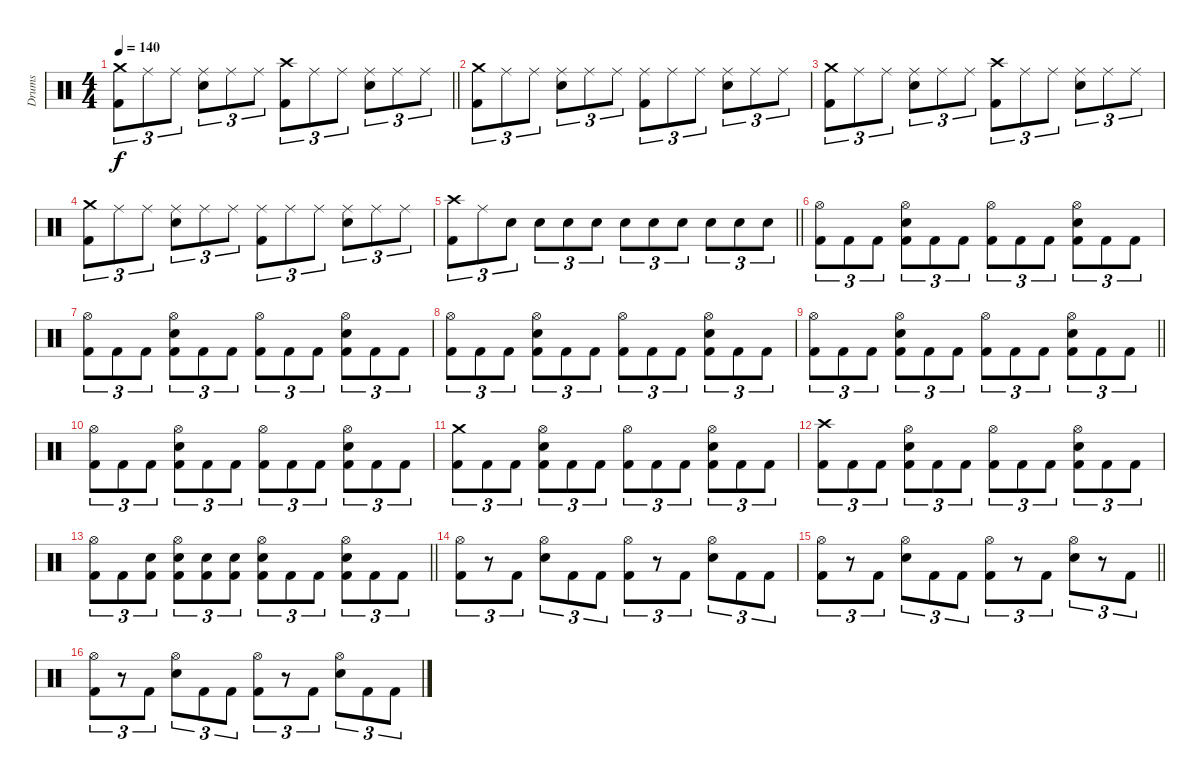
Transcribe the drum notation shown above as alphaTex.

\track ("Drums" "Drums") {instrument percussion}
\staff {score}
\articulation defaults
\ts (4 4)
\tempo 140
\clef neutral
\barLineRight lightlight
\ks c
("Crash medium (hit)" "Kick (hit) 2").8{tu (3 2) dy f} "Ride (middle)".8{tu (3 2)} "Ride (middle)".8{tu (3 2)} ("Ride (middle)" "Snare (hit) 2").8{tu (3 2)} "Ride (middle)".8{tu (3 2)} "Ride (middle)".8{tu (3 2)} ("Crash high (hit)" "Kick (hit) 2").8{tu (3 2)} "Ride (middle)".8{tu (3 2)} "Ride (middle)".8{tu (3 2)} ("Ride (middle)" "Snare (hit) 2").8{tu (3 2)} "Ride (middle)".8{tu (3 2)} "Ride (middle)".8{tu (3 2)} |
("Crash medium (hit)" "Kick (hit) 2").8{tu (3 2)} "Ride (middle)".8{tu (3 2)} "Ride (middle)".8{tu (3 2)} ("Ride (middle)" "Snare (hit) 2").8{tu (3 2)} "Ride (middle)".8{tu (3 2)} "Ride (middle)".8{tu (3 2)} ("Ride (middle)" "Kick (hit) 2").8{tu (3 2)} "Ride (middle)".8{tu (3 2)} "Ride (middle)".8{tu (3 2)} ("Ride (middle)" "Snare (hit) 2").8{tu (3 2)} "Ride (middle)".8{tu (3 2)} "Ride (middle)".8{tu (3 2)} |
("Crash medium (hit)" "Kick (hit) 2").8{tu (3 2)} "Ride (middle)".8{tu (3 2)} "Ride (middle)".8{tu (3 2)} ("Ride (middle)" "Snare (hit) 2").8{tu (3 2)} "Ride (middle)".8{tu (3 2)} "Ride (middle)".8{tu (3 2)} ("Crash high (hit)" "Kick (hit) 2").8{tu (3 2)} "Ride (middle)".8{tu (3 2)} "Ride (middle)".8{tu (3 2)} ("Ride (middle)" "Snare (hit) 2").8{tu (3 2)} "Ride (middle)".8{tu (3 2)} "Ride (middle)".8{tu (3 2)} |
("Crash medium (hit)" "Kick (hit) 2").8{tu (3 2)} "Ride (middle)".8{tu (3 2)} "Ride (middle)".8{tu (3 2)} ("Ride (middle)" "Snare (hit) 2").8{tu (3 2)} "Ride (middle)".8{tu (3 2)} "Ride (middle)".8{tu (3 2)} ("Ride (middle)" "Kick (hit) 2").8{tu (3 2)} "Ride (middle)".8{tu (3 2)} "Ride (middle)".8{tu (3 2)} ("Ride (middle)" "Snare (hit) 2").8{tu (3 2)} "Ride (middle)".8{tu (3 2)} "Ride (middle)".8{tu (3 2)} |
\barLineRight lightlight
("Crash high (hit)" "Kick (hit) 2").8{tu (3 2)} "Ride (middle)".8{tu (3 2)} "Snare (hit) 2".8{tu (3 2)} "Snare (hit) 2".8{tu (3 2)} "Snare (hit) 2".8{tu (3 2)} "Snare (hit) 2".8{tu (3 2)} "Snare (hit) 2".8{tu (3 2)} "Snare (hit) 2".8{tu (3 2)} "Snare (hit) 2".8{tu (3 2)} "Snare (hit) 2".8{tu (3 2)} "Snare (hit) 2".8{tu (3 2)} "Snare (hit) 2".8{tu (3 2)} |
("Hi-Hat (open)" "Kick (hit) 2").8{tu (3 2)} "Kick (hit) 2".8{tu (3 2)} "Kick (hit) 2".8{tu (3 2)} ("Hi-Hat (open)" "Snare (hit) 2" "Kick (hit) 2").8{tu (3 2)} "Kick (hit) 2".8{tu (3 2)} "Kick (hit) 2".8{tu (3 2)} ("Hi-Hat (open)" "Kick (hit) 2").8{tu (3 2)} "Kick (hit) 2".8{tu (3 2)} "Kick (hit) 2".8{tu (3 2)} ("Hi-Hat (open)" "Snare (hit) 2" "Kick (hit) 2").8{tu (3 2)} "Kick (hit) 2".8{tu (3 2)} "Kick (hit) 2".8{tu (3 2)} |
("Hi-Hat (open)" "Kick (hit) 2").8{tu (3 2)} "Kick (hit) 2".8{tu (3 2)} "Kick (hit) 2".8{tu (3 2)} ("Hi-Hat (open)" "Snare (hit) 2" "Kick (hit) 2").8{tu (3 2)} "Kick (hit) 2".8{tu (3 2)} "Kick (hit) 2".8{tu (3 2)} ("Hi-Hat (open)" "Kick (hit) 2").8{tu (3 2)} "Kick (hit) 2".8{tu (3 2)} "Kick (hit) 2".8{tu (3 2)} ("Hi-Hat (open)" "Snare (hit) 2" "Kick (hit) 2").8{tu (3 2)} "Kick (hit) 2".8{tu (3 2)} "Kick (hit) 2".8{tu (3 2)} |
("Hi-Hat (open)" "Kick (hit) 2").8{tu (3 2)} "Kick (hit) 2".8{tu (3 2)} "Kick (hit) 2".8{tu (3 2)} ("Hi-Hat (open)" "Snare (hit) 2" "Kick (hit) 2").8{tu (3 2)} "Kick (hit) 2".8{tu (3 2)} "Kick (hit) 2".8{tu (3 2)} ("Hi-Hat (open)" "Kick (hit) 2").8{tu (3 2)} "Kick (hit) 2".8{tu (3 2)} "Kick (hit) 2".8{tu (3 2)} ("Hi-Hat (open)" "Snare (hit) 2" "Kick (hit) 2").8{tu (3 2)} "Kick (hit) 2".8{tu (3 2)} "Kick (hit) 2".8{tu (3 2)} |
\barLineRight lightlight
("Hi-Hat (open)" "Kick (hit) 2").8{tu (3 2)} "Kick (hit) 2".8{tu (3 2)} "Kick (hit) 2".8{tu (3 2)} ("Hi-Hat (open)" "Snare (hit) 2" "Kick (hit) 2").8{tu (3 2)} "Kick (hit) 2".8{tu (3 2)} "Kick (hit) 2".8{tu (3 2)} ("Hi-Hat (open)" "Kick (hit) 2").8{tu (3 2)} "Kick (hit) 2".8{tu (3 2)} "Kick (hit) 2".8{tu (3 2)} ("Hi-Hat (open)" "Snare (hit) 2" "Kick (hit) 2").8{tu (3 2)} "Kick (hit) 2".8{tu (3 2)} "Kick (hit) 2".8{tu (3 2)} |
("Hi-Hat (open)" "Kick (hit) 2").8{tu (3 2)} "Kick (hit) 2".8{tu (3 2)} "Kick (hit) 2".8{tu (3 2)} ("Hi-Hat (open)" "Snare (hit) 2" "Kick (hit) 2").8{tu (3 2)} "Kick (hit) 2".8{tu (3 2)} "Kick (hit) 2".8{tu (3 2)} ("Hi-Hat (open)" "Kick (hit) 2").8{tu (3 2)} "Kick (hit) 2".8{tu (3 2)} "Kick (hit) 2".8{tu (3 2)} ("Hi-Hat (open)" "Snare (hit) 2" "Kick (hit) 2").8{tu (3 2)} "Kick (hit) 2".8{tu (3 2)} "Kick (hit) 2".8{tu (3 2)} |
("Crash medium (hit)" "Kick (hit) 2").8{tu (3 2)} "Kick (hit) 2".8{tu (3 2)} "Kick (hit) 2".8{tu (3 2)} ("Hi-Hat (open)" "Snare (hit) 2" "Kick (hit) 2").8{tu (3 2)} "Kick (hit) 2".8{tu (3 2)} "Kick (hit) 2".8{tu (3 2)} ("Hi-Hat (open)" "Kick (hit) 2").8{tu (3 2)} "Kick (hit) 2".8{tu (3 2)} "Kick (hit) 2".8{tu (3 2)} ("Hi-Hat (open)" "Snare (hit) 2" "Kick (hit) 2").8{tu (3 2)} "Kick (hit) 2".8{tu (3 2)} "Kick (hit) 2".8{tu (3 2)} |
("Crash high (hit)" "Kick (hit) 2").8{tu (3 2)} "Kick (hit) 2".8{tu (3 2)} "Kick (hit) 2".8{tu (3 2)} ("Hi-Hat (open)" "Snare (hit) 2" "Kick (hit) 2").8{tu (3 2)} "Kick (hit) 2".8{tu (3 2)} "Kick (hit) 2".8{tu (3 2)} ("Hi-Hat (open)" "Kick (hit) 2").8{tu (3 2)} "Kick (hit) 2".8{tu (3 2)} "Kick (hit) 2".8{tu (3 2)} ("Hi-Hat (open)" "Snare (hit) 2" "Kick (hit) 2").8{tu (3 2)} "Kick (hit) 2".8{tu (3 2)} "Kick (hit) 2".8{tu (3 2)} |
\barLineRight lightlight
("Hi-Hat (open)" "Kick (hit) 2").8{tu (3 2)} "Kick (hit) 2".8{tu (3 2)} ("Snare (hit) 2" "Kick (hit) 2").8{tu (3 2)} ("Hi-Hat (open)" "Snare (hit) 2" "Kick (hit) 2").8{tu (3 2)} ("Snare (hit) 2" "Kick (hit) 2").8{tu (3 2)} ("Snare (hit) 2" "Kick (hit) 2").8{tu (3 2)} ("Hi-Hat (open)" "Snare (hit) 2" "Kick (hit) 2").8{tu (3 2)} "Kick (hit) 2".8{tu (3 2)} "Kick (hit) 2".8{tu (3 2)} ("Hi-Hat (open)" "Snare (hit) 2" "Kick (hit) 2").8{tu (3 2)} "Kick (hit) 2".8{tu (3 2)} "Kick (hit) 2".8{tu (3 2)} |
("Hi-Hat (open)" "Kick (hit) 2").8{tu (3 2)} r.8{tu (3 2)} "Kick (hit) 2".8{tu (3 2)} ("Hi-Hat (open)" "Snare (hit) 2").8{tu (3 2)} "Kick (hit) 2".8{tu (3 2)} "Kick (hit) 2".8{tu (3 2)} ("Hi-Hat (open)" "Kick (hit) 2").8{tu (3 2)} r.8{tu (3 2)} "Kick (hit) 2".8{tu (3 2)} ("Hi-Hat (open)" "Snare (hit) 2").8{tu (3 2)} "Kick (hit) 2".8{tu (3 2)} "Kick (hit) 2".8{tu (3 2)} |
\barLineRight lightlight
("Hi-Hat (open)" "Kick (hit) 2").8{tu (3 2)} r.8{tu (3 2)} "Kick (hit) 2".8{tu (3 2)} ("Hi-Hat (open)" "Snare (hit) 2").8{tu (3 2)} "Kick (hit) 2".8{tu (3 2)} "Kick (hit) 2".8{tu (3 2)} ("Hi-Hat (open)" "Kick (hit) 2").8{tu (3 2)} r.8{tu (3 2)} "Kick (hit) 2".8{tu (3 2)} ("Hi-Hat (open)" "Snare (hit) 2").8{tu (3 2)} r.8{tu (3 2)} "Kick (hit) 2".8{tu (3 2)} |
("Hi-Hat (open)" "Kick (hit) 2").8{tu (3 2)} r.8{tu (3 2)} "Kick (hit) 2".8{tu (3 2)} ("Hi-Hat (open)" "Snare (hit) 2").8{tu (3 2)} "Kick (hit) 2".8{tu (3 2)} "Kick (hit) 2".8{tu (3 2)} ("Hi-Hat (open)" "Kick (hit) 2").8{tu (3 2)} r.8{tu (3 2)} "Kick (hit) 2".8{tu (3 2)} ("Hi-Hat (open)" "Snare (hit) 2").8{tu (3 2)} "Kick (hit) 2".8{tu (3 2)} "Kick (hit) 2".8{tu (3 2)}
